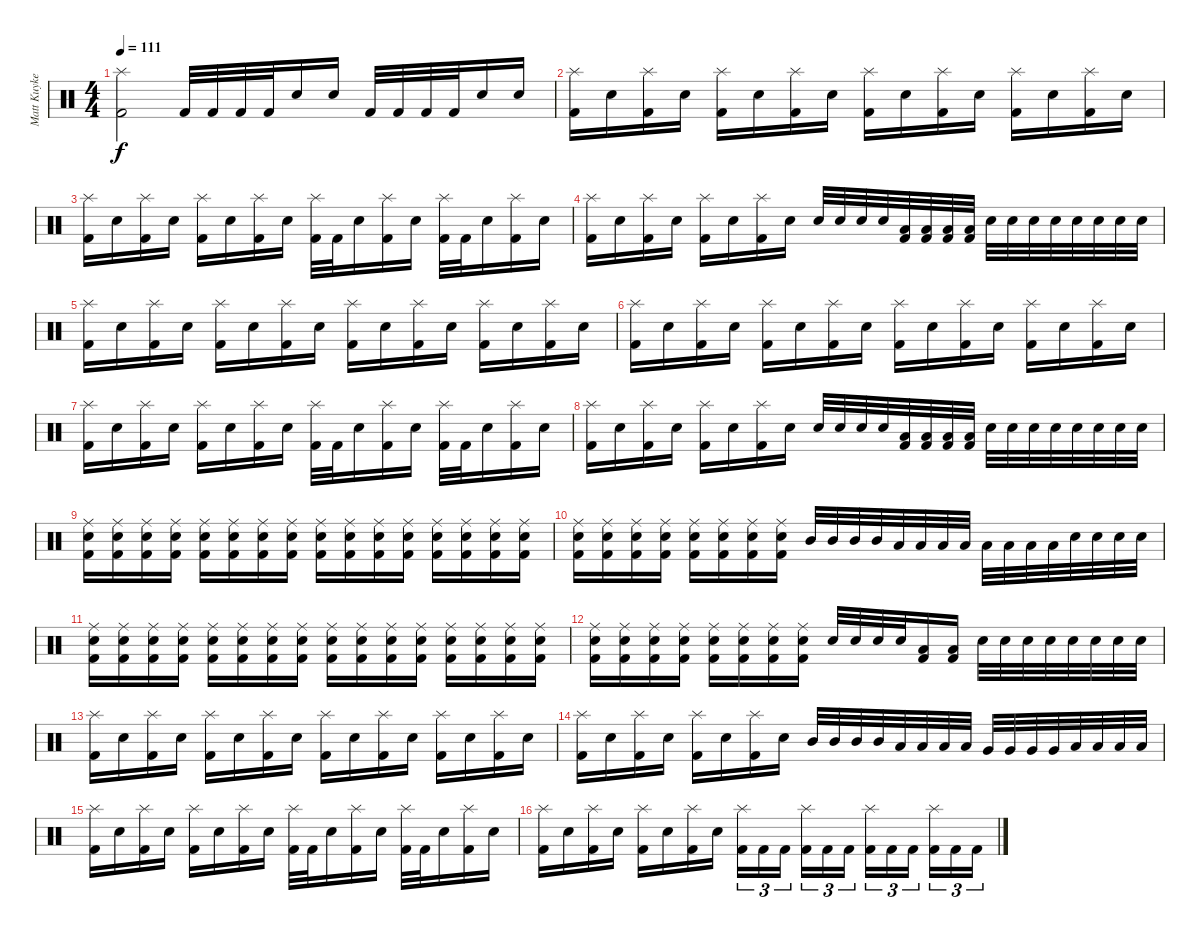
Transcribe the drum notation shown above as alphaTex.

\track ("Matt Kuykendall (Drums)" "Matt Kuyke") {instrument percussion}
\staff {score}
\articulation defaults
\ts (4 4)
\tempo 111
\clef neutral
\ks c
("Splash (hit)" "Kick (hit) 2").2{dy f} "Kick (hit) 2".32 "Kick (hit) 2".32 "Kick (hit) 2".32 "Kick (hit) 2".32 "Snare (hit) 2".16 "Snare (hit) 2".16 "Kick (hit) 2".32 "Kick (hit) 2".32 "Kick (hit) 2".32 "Kick (hit) 2".32 "Snare (hit) 2".16 "Snare (hit) 2".16 |
("Splash (hit)" "Kick (hit) 2").16 "Snare (hit) 2".16 ("Splash (hit)" "Kick (hit) 2").16 "Snare (hit) 2".16 ("Splash (hit)" "Kick (hit) 2").16 "Snare (hit) 2".16 ("Splash (hit)" "Kick (hit) 2").16 "Snare (hit) 2".16 ("Splash (hit)" "Kick (hit) 2").16 "Snare (hit) 2".16 ("Splash (hit)" "Kick (hit) 2").16 "Snare (hit) 2".16 ("Splash (hit)" "Kick (hit) 2").16 "Snare (hit) 2".16 ("Splash (hit)" "Kick (hit) 2").16 "Snare (hit) 2".16 |
("Splash (hit)" "Kick (hit) 2").16 "Snare (hit) 2".16 ("Splash (hit)" "Kick (hit) 2").16 "Snare (hit) 2".16 ("Splash (hit)" "Kick (hit) 2").16 "Snare (hit) 2".16 ("Splash (hit)" "Kick (hit) 2").16 "Snare (hit) 2".16 ("Splash (hit)" "Kick (hit) 2").32 "Kick (hit) 2".32 "Snare (hit) 2".16 ("Splash (hit)" "Kick (hit) 2").16 "Snare (hit) 2".16 ("Splash (hit)" "Kick (hit) 2").32 "Kick (hit) 2".32 "Snare (hit) 2".16 ("Splash (hit)" "Kick (hit) 2").16 "Snare (hit) 2".16 |
("Splash (hit)" "Kick (hit) 2").16 "Snare (hit) 2".16 ("Splash (hit)" "Kick (hit) 2").16 "Snare (hit) 2".16 ("Splash (hit)" "Kick (hit) 2").16 "Snare (hit) 2".16 ("Splash (hit)" "Kick (hit) 2").16 "Snare (hit) 2".16 "Snare (hit) 2".32 "Snare (hit) 2".32 "Snare (hit) 2".32 "Snare (hit) 2".32 ("Low Floor Tom (hit)" "Kick (hit) 2").32 ("Low Floor Tom (hit)" "Kick (hit) 2").32 ("Low Floor Tom (hit)" "Kick (hit) 2").32 ("Low Floor Tom (hit)" "Kick (hit) 2").32 "Snare (hit) 2".32 "Snare (hit) 2".32 "Snare (hit) 2".32 "Snare (hit) 2".32 "Snare (hit) 2".32 "Snare (hit) 2".32 "Snare (hit) 2".32 "Snare (hit) 2".32 |
("Splash (hit)" "Kick (hit) 2").16 "Snare (hit) 2".16 ("Splash (hit)" "Kick (hit) 2").16 "Snare (hit) 2".16 ("Splash (hit)" "Kick (hit) 2").16 "Snare (hit) 2".16 ("Splash (hit)" "Kick (hit) 2").16 "Snare (hit) 2".16 ("Splash (hit)" "Kick (hit) 2").16 "Snare (hit) 2".16 ("Splash (hit)" "Kick (hit) 2").16 "Snare (hit) 2".16 ("Splash (hit)" "Kick (hit) 2").16 "Snare (hit) 2".16 ("Splash (hit)" "Kick (hit) 2").16 "Snare (hit) 2".16 |
("Splash (hit)" "Kick (hit) 2").16 "Snare (hit) 2".16 ("Splash (hit)" "Kick (hit) 2").16 "Snare (hit) 2".16 ("Splash (hit)" "Kick (hit) 2").16 "Snare (hit) 2".16 ("Splash (hit)" "Kick (hit) 2").16 "Snare (hit) 2".16 ("Splash (hit)" "Kick (hit) 2").16 "Snare (hit) 2".16 ("Splash (hit)" "Kick (hit) 2").16 "Snare (hit) 2".16 ("Splash (hit)" "Kick (hit) 2").16 "Snare (hit) 2".16 ("Splash (hit)" "Kick (hit) 2").16 "Snare (hit) 2".16 |
("Splash (hit)" "Kick (hit) 2").16 "Snare (hit) 2".16 ("Splash (hit)" "Kick (hit) 2").16 "Snare (hit) 2".16 ("Splash (hit)" "Kick (hit) 2").16 "Snare (hit) 2".16 ("Splash (hit)" "Kick (hit) 2").16 "Snare (hit) 2".16 ("Splash (hit)" "Kick (hit) 2").32 "Kick (hit) 2".32 "Snare (hit) 2".16 ("Splash (hit)" "Kick (hit) 2").16 "Snare (hit) 2".16 ("Splash (hit)" "Kick (hit) 2").32 "Kick (hit) 2".32 "Snare (hit) 2".16 ("Splash (hit)" "Kick (hit) 2").16 "Snare (hit) 2".16 |
("Splash (hit)" "Kick (hit) 2").16 "Snare (hit) 2".16 ("Splash (hit)" "Kick (hit) 2").16 "Snare (hit) 2".16 ("Splash (hit)" "Kick (hit) 2").16 "Snare (hit) 2".16 ("Splash (hit)" "Kick (hit) 2").16 "Snare (hit) 2".16 "Snare (hit) 2".32 "Snare (hit) 2".32 "Snare (hit) 2".32 "Snare (hit) 2".32 ("Low Floor Tom (hit)" "Kick (hit) 2").32 ("Low Floor Tom (hit)" "Kick (hit) 2").32 ("Low Floor Tom (hit)" "Kick (hit) 2").32 ("Low Floor Tom (hit)" "Kick (hit) 2").32 "Snare (hit) 2".32 "Snare (hit) 2".32 "Snare (hit) 2".32 "Snare (hit) 2".32 "Snare (hit) 2".32 "Snare (hit) 2".32 "Snare (hit) 2".32 "Snare (hit) 2".32 |
("Ride (middle)" "Snare (hit) 2" "Kick (hit) 2").16 ("Ride (middle)" "Snare (hit) 2" "Kick (hit) 2").16 ("Ride (middle)" "Snare (hit) 2" "Kick (hit) 2").16 ("Ride (middle)" "Snare (hit) 2" "Kick (hit) 2").16 ("Ride (middle)" "Snare (hit) 2" "Kick (hit) 2").16 ("Ride (middle)" "Snare (hit) 2" "Kick (hit) 2").16 ("Ride (middle)" "Snare (hit) 2" "Kick (hit) 2").16 ("Ride (middle)" "Snare (hit) 2" "Kick (hit) 2").16 ("Ride (middle)" "Snare (hit) 2" "Kick (hit) 2").16 ("Ride (middle)" "Snare (hit) 2" "Kick (hit) 2").16 ("Ride (middle)" "Snare (hit) 2" "Kick (hit) 2").16 ("Ride (middle)" "Snare (hit) 2" "Kick (hit) 2").16 ("Ride (middle)" "Snare (hit) 2" "Kick (hit) 2").16 ("Ride (middle)" "Snare (hit) 2" "Kick (hit) 2").16 ("Ride (middle)" "Snare (hit) 2" "Kick (hit) 2").16 ("Ride (middle)" "Snare (hit) 2" "Kick (hit) 2").16 |
("Ride (middle)" "Snare (hit) 2" "Kick (hit) 2").16 ("Ride (middle)" "Snare (hit) 2" "Kick (hit) 2").16 ("Ride (middle)" "Snare (hit) 2" "Kick (hit) 2").16 ("Ride (middle)" "Snare (hit) 2" "Kick (hit) 2").16 ("Ride (middle)" "Snare (hit) 2" "Kick (hit) 2").16 ("Ride (middle)" "Snare (hit) 2" "Kick (hit) 2").16 ("Ride (middle)" "Snare (hit) 2" "Kick (hit) 2").16 ("Ride (middle)" "Snare (hit) 2" "Kick (hit) 2").16 "Mid Tom (hit)".32 "Mid Tom (hit)".32 "Mid Tom (hit)".32 "Mid Tom (hit)".32 "Low Tom (hit)".32 "Low Tom (hit)".32 "Low Tom (hit)".32 "Low Tom (hit)".32 "Low Floor Tom (hit)".32 "Low Floor Tom (hit)".32 "Low Floor Tom (hit)".32 "Low Floor Tom (hit)".32 "Snare (hit) 2".32 "Snare (hit) 2".32 "Snare (hit) 2".32 "Snare (hit) 2".32 |
("Ride (middle)" "Snare (hit) 2" "Kick (hit) 2").16 ("Ride (middle)" "Snare (hit) 2" "Kick (hit) 2").16 ("Ride (middle)" "Snare (hit) 2" "Kick (hit) 2").16 ("Ride (middle)" "Snare (hit) 2" "Kick (hit) 2").16 ("Ride (middle)" "Snare (hit) 2" "Kick (hit) 2").16 ("Ride (middle)" "Snare (hit) 2" "Kick (hit) 2").16 ("Ride (middle)" "Snare (hit) 2" "Kick (hit) 2").16 ("Ride (middle)" "Snare (hit) 2" "Kick (hit) 2").16 ("Ride (middle)" "Snare (hit) 2" "Kick (hit) 2").16 ("Ride (middle)" "Snare (hit) 2" "Kick (hit) 2").16 ("Ride (middle)" "Snare (hit) 2" "Kick (hit) 2").16 ("Ride (middle)" "Snare (hit) 2" "Kick (hit) 2").16 ("Ride (middle)" "Snare (hit) 2" "Kick (hit) 2").16 ("Ride (middle)" "Snare (hit) 2" "Kick (hit) 2").16 ("Ride (middle)" "Snare (hit) 2" "Kick (hit) 2").16 ("Ride (middle)" "Snare (hit) 2" "Kick (hit) 2").16 |
("Ride (middle)" "Snare (hit) 2" "Kick (hit) 2").16 ("Ride (middle)" "Snare (hit) 2" "Kick (hit) 2").16 ("Ride (middle)" "Snare (hit) 2" "Kick (hit) 2").16 ("Ride (middle)" "Snare (hit) 2" "Kick (hit) 2").16 ("Ride (middle)" "Snare (hit) 2" "Kick (hit) 2").16 ("Ride (middle)" "Snare (hit) 2" "Kick (hit) 2").16 ("Ride (middle)" "Snare (hit) 2" "Kick (hit) 2").16 ("Ride (middle)" "Snare (hit) 2" "Kick (hit) 2").16 "Snare (hit) 2".32 "Snare (hit) 2".32 "Snare (hit) 2".32 "Snare (hit) 2".32 ("Low Floor Tom (hit)" "Kick (hit) 2").16 ("Low Floor Tom (hit)" "Kick (hit) 2").16 "Snare (hit) 2".32 "Snare (hit) 2".32 "Snare (hit) 2".32 "Snare (hit) 2".32 "Snare (hit) 2".32 "Snare (hit) 2".32 "Snare (hit) 2".32 "Snare (hit) 2".32 |
("Splash (hit)" "Kick (hit) 2").16 "Snare (hit) 2".16 ("Splash (hit)" "Kick (hit) 2").16 "Snare (hit) 2".16 ("Splash (hit)" "Kick (hit) 2").16 "Snare (hit) 2".16 ("Splash (hit)" "Kick (hit) 2").16 "Snare (hit) 2".16 ("Splash (hit)" "Kick (hit) 2").16 "Snare (hit) 2".16 ("Splash (hit)" "Kick (hit) 2").16 "Snare (hit) 2".16 ("Splash (hit)" "Kick (hit) 2").16 "Snare (hit) 2".16 ("Splash (hit)" "Kick (hit) 2").16 "Snare (hit) 2".16 |
("Splash (hit)" "Kick (hit) 2").16 "Snare (hit) 2".16 ("Splash (hit)" "Kick (hit) 2").16 "Snare (hit) 2".16 ("Splash (hit)" "Kick (hit) 2").16 "Snare (hit) 2".16 ("Splash (hit)" "Kick (hit) 2").16 "Snare (hit) 2".16 "Mid Tom (hit)".32 "Mid Tom (hit)".32 "Mid Tom (hit)".32 "Mid Tom (hit)".32 "Low Tom (hit)".32 "Low Tom (hit)".32 "Low Tom (hit)".32 "Low Tom (hit)".32 "Very Low Tom (hit)".32 "Very Low Tom (hit)".32 "Very Low Tom (hit)".32 "Very Low Tom (hit)".32 "Low Floor Tom (hit)".32 "Low Floor Tom (hit)".32 "Low Floor Tom (hit)".32 "Low Floor Tom (hit)".32 |
("Splash (hit)" "Kick (hit) 2").16 "Snare (hit) 2".16 ("Splash (hit)" "Kick (hit) 2").16 "Snare (hit) 2".16 ("Splash (hit)" "Kick (hit) 2").16 "Snare (hit) 2".16 ("Splash (hit)" "Kick (hit) 2").16 "Snare (hit) 2".16 ("Splash (hit)" "Kick (hit) 2").32 "Kick (hit) 2".32 "Snare (hit) 2".16 ("Splash (hit)" "Kick (hit) 2").16 "Snare (hit) 2".16 ("Splash (hit)" "Kick (hit) 2").32 "Kick (hit) 2".32 "Snare (hit) 2".16 ("Splash (hit)" "Kick (hit) 2").16 "Snare (hit) 2".16 |
("Splash (hit)" "Kick (hit) 2").16 "Snare (hit) 2".16 ("Splash (hit)" "Kick (hit) 2").16 "Snare (hit) 2".16 ("Splash (hit)" "Kick (hit) 2").16 "Snare (hit) 2".16 ("Splash (hit)" "Kick (hit) 2").16 "Snare (hit) 2".16 ("Splash (hit)" "Kick (hit) 2").16{tu (3 2)} "Kick (hit) 2".16{tu (3 2)} "Kick (hit) 2".16{tu (3 2) beam splitsecondary} ("Splash (hit)" "Kick (hit) 2").16{tu (3 2)} "Kick (hit) 2".16{tu (3 2)} "Kick (hit) 2".16{tu (3 2)} ("Splash (hit)" "Kick (hit) 2").16{tu (3 2)} "Kick (hit) 2".16{tu (3 2)} "Kick (hit) 2".16{tu (3 2) beam splitsecondary} ("Splash (hit)" "Kick (hit) 2").16{tu (3 2)} "Kick (hit) 2".16{tu (3 2)} "Kick (hit) 2".16{tu (3 2)}
